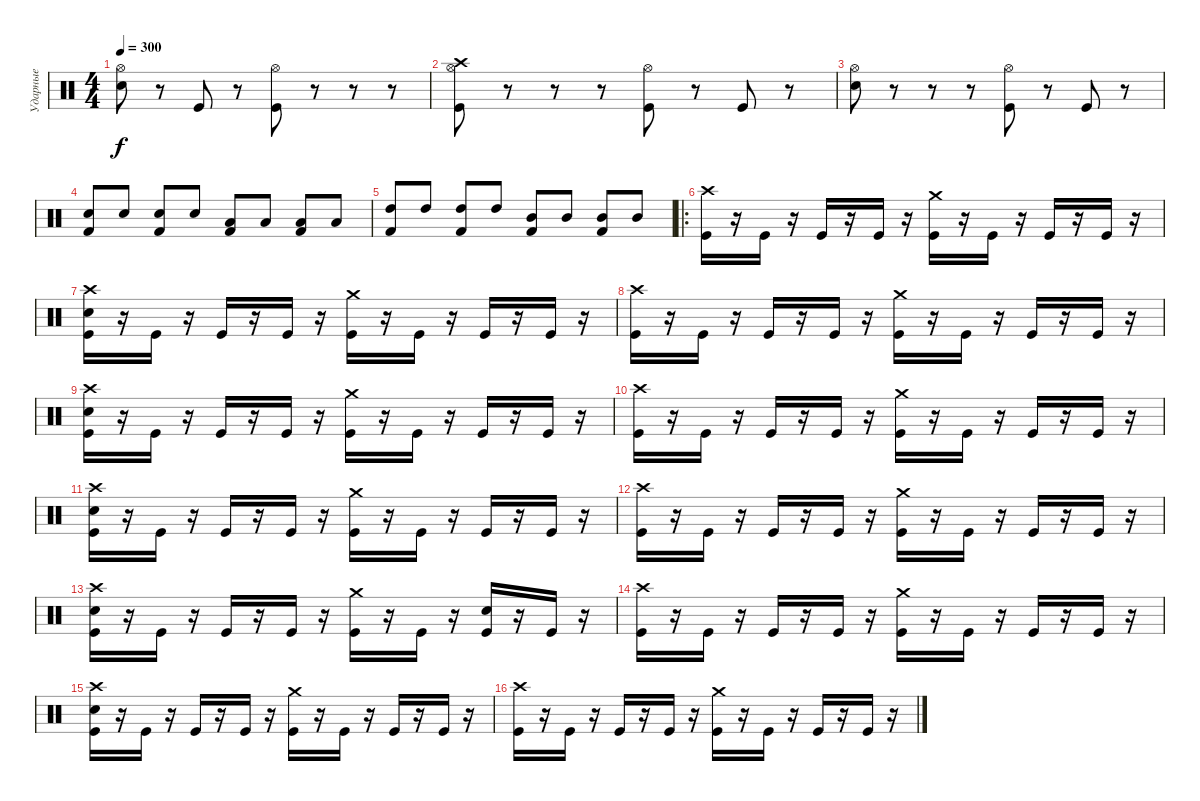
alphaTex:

\track ("Ударные" "Ударные") {instrument percussion}
\staff {score}
\articulation defaults
\ts (4 4)
\tempo 300
\clef neutral
\ks c
("Hi-Hat (open)" "Electric Snare (hit)").8{dy f} r.8 "Kick (hit)".8 r.8 ("Hi-Hat (open)" "Kick (hit)").8 r.8 r.8 r.8 |
("Crash high (hit)" "Hi-Hat (open)" "Kick (hit)").8 r.8 r.8 r.8 ("Hi-Hat (open)" "Kick (hit)").8 r.8 "Kick (hit)".8 r.8 |
("Hi-Hat (open)" "Electric Snare (hit)").8 r.8 r.8 r.8 ("Hi-Hat (open)" "Kick (hit)").8 r.8 "Kick (hit)".8 r.8 |
("Electric Snare (hit)" "Kick (hit) 2").8 "Electric Snare (hit)".8 ("Electric Snare (hit)" "Kick (hit) 2").8 "Electric Snare (hit)".8 ("Low Tom (hit)" "Kick (hit) 2").8 "Low Tom (hit)".8 ("Low Tom (hit)" "Kick (hit) 2").8 "Low Tom (hit)".8 |
("High Tom (hit)" "Kick (hit) 2").8 "High Tom (hit)".8 ("High Tom (hit)" "Kick (hit) 2").8 "High Tom (hit)".8 ("Mid Tom (hit)" "Kick (hit) 2").8 "Mid Tom (hit)".8 ("Mid Tom (hit)" "Kick (hit) 2").8 "Mid Tom (hit)".8 |
\ro
("Crash high (hit)" "Kick (hit)").16 r.16 "Kick (hit)".16 r.16 "Kick (hit)".16 r.16 "Kick (hit)".16 r.16 ("Crash medium (hit)" "Kick (hit)").16 r.16 "Kick (hit)".16 r.16 "Kick (hit)".16 r.16 "Kick (hit)".16 r.16 |
("Crash high (hit)" "Electric Snare (hit)" "Kick (hit)").16 r.16 "Kick (hit)".16 r.16 "Kick (hit)".16 r.16 "Kick (hit)".16 r.16 ("Crash medium (hit)" "Kick (hit)").16 r.16 "Kick (hit)".16 r.16 "Kick (hit)".16 r.16 "Kick (hit)".16 r.16 |
("Crash high (hit)" "Kick (hit)").16 r.16 "Kick (hit)".16 r.16 "Kick (hit)".16 r.16 "Kick (hit)".16 r.16 ("Crash medium (hit)" "Kick (hit)").16 r.16 "Kick (hit)".16 r.16 "Kick (hit)".16 r.16 "Kick (hit)".16 r.16 |
("Crash high (hit)" "Electric Snare (hit)" "Kick (hit)").16 r.16 "Kick (hit)".16 r.16 "Kick (hit)".16 r.16 "Kick (hit)".16 r.16 ("Crash medium (hit)" "Kick (hit)").16 r.16 "Kick (hit)".16 r.16 "Kick (hit)".16 r.16 "Kick (hit)".16 r.16 |
("Crash high (hit)" "Kick (hit)").16 r.16 "Kick (hit)".16 r.16 "Kick (hit)".16 r.16 "Kick (hit)".16 r.16 ("Crash medium (hit)" "Kick (hit)").16 r.16 "Kick (hit)".16 r.16 "Kick (hit)".16 r.16 "Kick (hit)".16 r.16 |
("Crash high (hit)" "Electric Snare (hit)" "Kick (hit)").16 r.16 "Kick (hit)".16 r.16 "Kick (hit)".16 r.16 "Kick (hit)".16 r.16 ("Crash medium (hit)" "Kick (hit)").16 r.16 "Kick (hit)".16 r.16 "Kick (hit)".16 r.16 "Kick (hit)".16 r.16 |
("Crash high (hit)" "Kick (hit)").16 r.16 "Kick (hit)".16 r.16 "Kick (hit)".16 r.16 "Kick (hit)".16 r.16 ("Crash medium (hit)" "Kick (hit)").16 r.16 "Kick (hit)".16 r.16 "Kick (hit)".16 r.16 "Kick (hit)".16 r.16 |
("Crash high (hit)" "Electric Snare (hit)" "Kick (hit)").16 r.16 "Kick (hit)".16 r.16 "Kick (hit)".16 r.16 "Kick (hit)".16 r.16 ("Crash medium (hit)" "Kick (hit)").16 r.16 "Kick (hit)".16 r.16 ("Electric Snare (hit)" "Kick (hit)").16 r.16 "Kick (hit)".16 r.16 |
("Crash high (hit)" "Kick (hit)").16 r.16 "Kick (hit)".16 r.16 "Kick (hit)".16 r.16 "Kick (hit)".16 r.16 ("Crash medium (hit)" "Kick (hit)").16 r.16 "Kick (hit)".16 r.16 "Kick (hit)".16 r.16 "Kick (hit)".16 r.16 |
("Crash high (hit)" "Electric Snare (hit)" "Kick (hit)").16 r.16 "Kick (hit)".16 r.16 "Kick (hit)".16 r.16 "Kick (hit)".16 r.16 ("Crash medium (hit)" "Kick (hit)").16 r.16 "Kick (hit)".16 r.16 "Kick (hit)".16 r.16 "Kick (hit)".16 r.16 |
("Crash high (hit)" "Kick (hit)").16 r.16 "Kick (hit)".16 r.16 "Kick (hit)".16 r.16 "Kick (hit)".16 r.16 ("Crash medium (hit)" "Kick (hit)").16 r.16 "Kick (hit)".16 r.16 "Kick (hit)".16 r.16 "Kick (hit)".16 r.16
